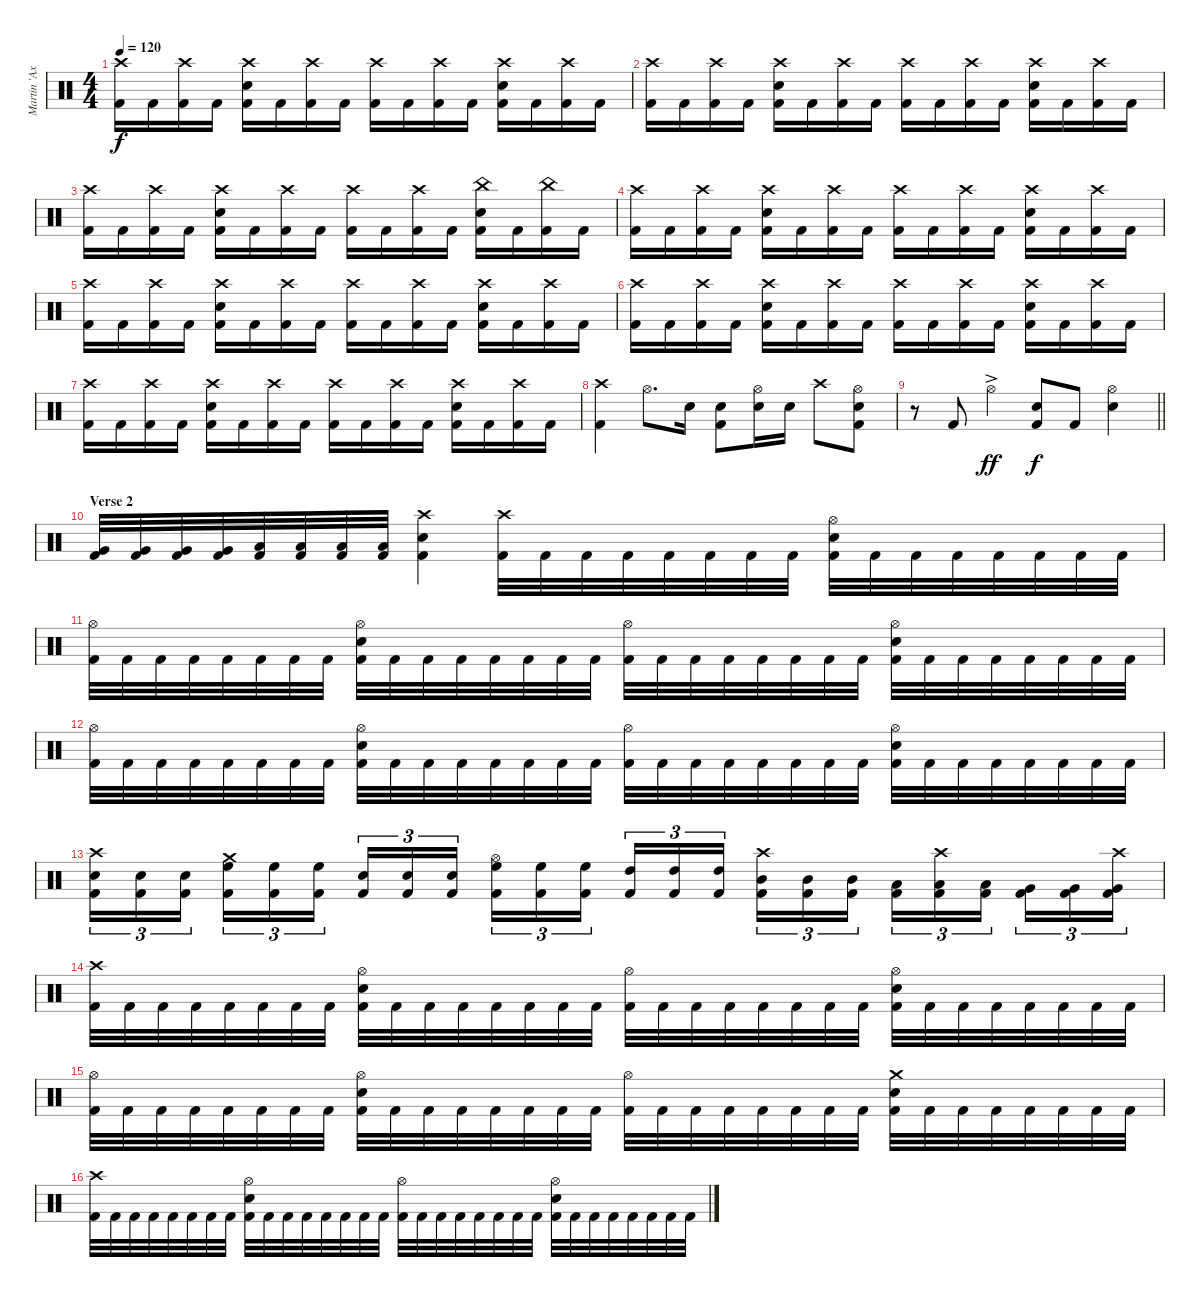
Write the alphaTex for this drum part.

\track ("Martin 'Axe' Axenrot" "Martin 'Ax") {instrument percussion}
\staff {score}
\articulation defaults
\ts (4 4)
\tempo 120
\clef neutral
\ks c
("Crash high (hit)" "Kick (hit) 2").16{dy f} "Kick (hit) 2".16 ("Crash high (hit)" "Kick (hit) 2").16 "Kick (hit) 2".16 ("Crash high (hit)" "Snare (hit) 2" "Kick (hit) 2").16 "Kick (hit) 2".16 ("Crash high (hit)" "Kick (hit) 2").16 "Kick (hit) 2".16 ("Crash high (hit)" "Kick (hit) 2").16 "Kick (hit) 2".16 ("Crash high (hit)" "Kick (hit) 2").16 "Kick (hit) 2".16 ("Crash high (hit)" "Snare (hit) 2" "Kick (hit) 2").16 "Kick (hit) 2".16 ("Crash high (hit)" "Kick (hit) 2").16 "Kick (hit) 2".16 |
("Crash high (hit)" "Kick (hit) 2").16 "Kick (hit) 2".16 ("Crash high (hit)" "Kick (hit) 2").16 "Kick (hit) 2".16 ("Crash high (hit)" "Snare (hit) 2" "Kick (hit) 2").16 "Kick (hit) 2".16 ("Crash high (hit)" "Kick (hit) 2").16 "Kick (hit) 2".16 ("Crash high (hit)" "Kick (hit) 2").16 "Kick (hit) 2".16 ("Crash high (hit)" "Kick (hit) 2").16 "Kick (hit) 2".16 ("Crash high (hit)" "Snare (hit) 2" "Kick (hit) 2").16 "Kick (hit) 2".16 ("Crash high (hit)" "Kick (hit) 2").16 "Kick (hit) 2".16 |
("Crash high (hit)" "Kick (hit) 2").16 "Kick (hit) 2".16 ("Crash high (hit)" "Kick (hit) 2").16 "Kick (hit) 2".16 ("Crash high (hit)" "Snare (hit) 2" "Kick (hit) 2").16 "Kick (hit) 2".16 ("Crash high (hit)" "Kick (hit) 2").16 "Kick (hit) 2".16 ("Crash high (hit)" "Kick (hit) 2").16 "Kick (hit) 2".16 ("Crash high (hit)" "Kick (hit) 2").16 "Kick (hit) 2".16 ("China (hit)" "Snare (hit) 2" "Kick (hit) 2").16 "Kick (hit) 2".16 ("China (hit)" "Kick (hit) 2").16 "Kick (hit) 2".16 |
("Crash high (hit)" "Kick (hit) 2").16 "Kick (hit) 2".16 ("Crash high (hit)" "Kick (hit) 2").16 "Kick (hit) 2".16 ("Crash high (hit)" "Snare (hit) 2" "Kick (hit) 2").16 "Kick (hit) 2".16 ("Crash high (hit)" "Kick (hit) 2").16 "Kick (hit) 2".16 ("Crash high (hit)" "Kick (hit) 2").16 "Kick (hit) 2".16 ("Crash high (hit)" "Kick (hit) 2").16 "Kick (hit) 2".16 ("Crash high (hit)" "Snare (hit) 2" "Kick (hit) 2").16 "Kick (hit) 2".16 ("Crash high (hit)" "Kick (hit) 2").16 "Kick (hit) 2".16 |
("Crash high (hit)" "Kick (hit) 2").16 "Kick (hit) 2".16 ("Crash high (hit)" "Kick (hit) 2").16 "Kick (hit) 2".16 ("Crash high (hit)" "Snare (hit) 2" "Kick (hit) 2").16 "Kick (hit) 2".16 ("Crash high (hit)" "Kick (hit) 2").16 "Kick (hit) 2".16 ("Crash high (hit)" "Kick (hit) 2").16 "Kick (hit) 2".16 ("Crash high (hit)" "Kick (hit) 2").16 "Kick (hit) 2".16 ("Crash high (hit)" "Snare (hit) 2" "Kick (hit) 2").16 "Kick (hit) 2".16 ("Crash high (hit)" "Kick (hit) 2").16 "Kick (hit) 2".16 |
("Crash high (hit)" "Kick (hit) 2").16 "Kick (hit) 2".16 ("Crash high (hit)" "Kick (hit) 2").16 "Kick (hit) 2".16 ("Crash high (hit)" "Snare (hit) 2" "Kick (hit) 2").16 "Kick (hit) 2".16 ("Crash high (hit)" "Kick (hit) 2").16 "Kick (hit) 2".16 ("Crash high (hit)" "Kick (hit) 2").16 "Kick (hit) 2".16 ("Crash high (hit)" "Kick (hit) 2").16 "Kick (hit) 2".16 ("Crash high (hit)" "Snare (hit) 2" "Kick (hit) 2").16 "Kick (hit) 2".16 ("Crash high (hit)" "Kick (hit) 2").16 "Kick (hit) 2".16 |
("Crash high (hit)" "Kick (hit) 2").16 "Kick (hit) 2".16 ("Crash high (hit)" "Kick (hit) 2").16 "Kick (hit) 2".16 ("Crash high (hit)" "Snare (hit) 2" "Kick (hit) 2").16 "Kick (hit) 2".16 ("Crash high (hit)" "Kick (hit) 2").16 "Kick (hit) 2".16 ("Crash high (hit)" "Kick (hit) 2").16 "Kick (hit) 2".16 ("Crash high (hit)" "Kick (hit) 2").16 "Kick (hit) 2".16 ("Crash high (hit)" "Snare (hit) 2" "Kick (hit) 2").16 "Kick (hit) 2".16 ("Crash high (hit)" "Kick (hit) 2").16 "Kick (hit) 2".16 |
("Crash high (hit)" "Kick (hit) 2").4 "Hi-Hat (open)".8{d} "Snare (hit) 2".16 ("Snare (hit) 2" "Kick (hit) 2").8 ("Hi-Hat (open)" "Snare (hit) 2").16 "Snare (hit) 2".16 "Crash high (hit)".8 ("Hi-Hat (open)" "Snare (hit) 2" "Kick (hit) 2").8 |
\barLineRight lightlight
r.8 "Kick (hit) 2".8 "Hi-Hat (open)"{ac}.4{dy ff} ("Snare (hit) 2" "Kick (hit) 2").8{dy f} "Kick (hit) 2".8 ("Hi-Hat (open)" "Snare (hit) 2").4 |
\section ("" "Verse 2")
("Very Low Tom (hit)" "Kick (hit) 2").32 ("Very Low Tom (hit)" "Kick (hit) 2").32 ("Very Low Tom (hit)" "Kick (hit) 2").32 ("Very Low Tom (hit)" "Kick (hit) 2").32 ("Low Floor Tom (hit)" "Kick (hit) 2").32 ("Low Floor Tom (hit)" "Kick (hit) 2").32 ("Low Floor Tom (hit)" "Kick (hit) 2").32 ("Low Floor Tom (hit)" "Kick (hit) 2").32 ("Crash high (hit)" "Snare (hit) 2" "Kick (hit) 2").4 ("Crash high (hit)" "Kick (hit) 2").32 "Kick (hit) 2".32 "Kick (hit) 2".32 "Kick (hit) 2".32 "Kick (hit) 2".32 "Kick (hit) 2".32 "Kick (hit) 2".32 "Kick (hit) 2".32 ("Snare (hit) 2" "Hi-Hat (open)" "Kick (hit) 2").32 "Kick (hit) 2".32 "Kick (hit) 2".32 "Kick (hit) 2".32 "Kick (hit) 2".32 "Kick (hit) 2".32 "Kick (hit) 2".32 "Kick (hit) 2".32 |
("Hi-Hat (open)" "Kick (hit) 2").32 "Kick (hit) 2".32 "Kick (hit) 2".32 "Kick (hit) 2".32 "Kick (hit) 2".32 "Kick (hit) 2".32 "Kick (hit) 2".32 "Kick (hit) 2".32 ("Snare (hit) 2" "Hi-Hat (open)" "Kick (hit) 2").32 "Kick (hit) 2".32 "Kick (hit) 2".32 "Kick (hit) 2".32 "Kick (hit) 2".32 "Kick (hit) 2".32 "Kick (hit) 2".32 "Kick (hit) 2".32 ("Hi-Hat (open)" "Kick (hit) 2").32 "Kick (hit) 2".32 "Kick (hit) 2".32 "Kick (hit) 2".32 "Kick (hit) 2".32 "Kick (hit) 2".32 "Kick (hit) 2".32 "Kick (hit) 2".32 ("Snare (hit) 2" "Hi-Hat (open)" "Kick (hit) 2").32 "Kick (hit) 2".32 "Kick (hit) 2".32 "Kick (hit) 2".32 "Kick (hit) 2".32 "Kick (hit) 2".32 "Kick (hit) 2".32 "Kick (hit) 2".32 |
("Hi-Hat (open)" "Kick (hit) 2").32 "Kick (hit) 2".32 "Kick (hit) 2".32 "Kick (hit) 2".32 "Kick (hit) 2".32 "Kick (hit) 2".32 "Kick (hit) 2".32 "Kick (hit) 2".32 ("Snare (hit) 2" "Hi-Hat (open)" "Kick (hit) 2").32 "Kick (hit) 2".32 "Kick (hit) 2".32 "Kick (hit) 2".32 "Kick (hit) 2".32 "Kick (hit) 2".32 "Kick (hit) 2".32 "Kick (hit) 2".32 ("Hi-Hat (open)" "Kick (hit) 2").32 "Kick (hit) 2".32 "Kick (hit) 2".32 "Kick (hit) 2".32 "Kick (hit) 2".32 "Kick (hit) 2".32 "Kick (hit) 2".32 "Kick (hit) 2".32 ("Snare (hit) 2" "Hi-Hat (open)" "Kick (hit) 2").32 "Kick (hit) 2".32 "Kick (hit) 2".32 "Kick (hit) 2".32 "Kick (hit) 2".32 "Kick (hit) 2".32 "Kick (hit) 2".32 "Kick (hit) 2".32 |
("Crash high (hit)" "Snare (hit) 2" "Kick (hit) 2").16{tu (3 2)} ("Snare (hit) 2" "Kick (hit) 2").16{tu (3 2)} ("Snare (hit) 2" "Kick (hit) 2").16{tu (3 2) beam splitsecondary} ("Crash medium (hit)" "High Floor Tom (hit)" "Kick (hit) 2").16{tu (3 2)} ("High Floor Tom (hit)" "Kick (hit) 2").16{tu (3 2)} ("High Floor Tom (hit)" "Kick (hit) 2").16{tu (3 2)} ("Snare (hit) 2" "Kick (hit) 2").16{tu (3 2)} ("Snare (hit) 2" "Kick (hit) 2").16{tu (3 2)} ("Snare (hit) 2" "Kick (hit) 2").16{tu (3 2) beam splitsecondary} ("Hi-Hat (open)" "High Floor Tom (hit)" "Kick (hit) 2").16{tu (3 2)} ("High Floor Tom (hit)" "Kick (hit) 2").16{tu (3 2)} ("High Floor Tom (hit)" "Kick (hit) 2").16{tu (3 2)} ("High Tom (hit)" "Kick (hit) 2").16{tu (3 2)} ("High Tom (hit)" "Kick (hit) 2").16{tu (3 2)} ("High Tom (hit)" "Kick (hit) 2").16{tu (3 2) beam splitsecondary} ("Crash high (hit)" "Mid Tom (hit)" "Kick (hit) 2").16{tu (3 2)} ("Mid Tom (hit)" "Kick (hit) 2").16{tu (3 2)} ("Mid Tom (hit)" "Kick (hit) 2").16{tu (3 2)} ("Low Tom (hit)" "Kick (hit) 2").16{tu (3 2)} ("Crash high (hit)" "Low Tom (hit)" "Kick (hit) 2").16{tu (3 2)} ("Low Tom (hit)" "Kick (hit) 2").16{tu (3 2) beam splitsecondary} ("Very Low Tom (hit)" "Kick (hit) 2").16{tu (3 2)} ("Very Low Tom (hit)" "Kick (hit) 2").16{tu (3 2)} ("Crash high (hit)" "Very Low Tom (hit)" "Kick (hit) 2").16{tu (3 2)} |
("Crash high (hit)" "Kick (hit) 2").32 "Kick (hit) 2".32 "Kick (hit) 2".32 "Kick (hit) 2".32 "Kick (hit) 2".32 "Kick (hit) 2".32 "Kick (hit) 2".32 "Kick (hit) 2".32 ("Snare (hit) 2" "Hi-Hat (open)" "Kick (hit) 2").32 "Kick (hit) 2".32 "Kick (hit) 2".32 "Kick (hit) 2".32 "Kick (hit) 2".32 "Kick (hit) 2".32 "Kick (hit) 2".32 "Kick (hit) 2".32 ("Hi-Hat (open)" "Kick (hit) 2").32 "Kick (hit) 2".32 "Kick (hit) 2".32 "Kick (hit) 2".32 "Kick (hit) 2".32 "Kick (hit) 2".32 "Kick (hit) 2".32 "Kick (hit) 2".32 ("Snare (hit) 2" "Hi-Hat (open)" "Kick (hit) 2").32 "Kick (hit) 2".32 "Kick (hit) 2".32 "Kick (hit) 2".32 "Kick (hit) 2".32 "Kick (hit) 2".32 "Kick (hit) 2".32 "Kick (hit) 2".32 |
("Hi-Hat (open)" "Kick (hit) 2").32 "Kick (hit) 2".32 "Kick (hit) 2".32 "Kick (hit) 2".32 "Kick (hit) 2".32 "Kick (hit) 2".32 "Kick (hit) 2".32 "Kick (hit) 2".32 ("Snare (hit) 2" "Hi-Hat (open)" "Kick (hit) 2").32 "Kick (hit) 2".32 "Kick (hit) 2".32 "Kick (hit) 2".32 "Kick (hit) 2".32 "Kick (hit) 2".32 "Kick (hit) 2".32 "Kick (hit) 2".32 ("Hi-Hat (open)" "Kick (hit) 2").32 "Kick (hit) 2".32 "Kick (hit) 2".32 "Kick (hit) 2".32 "Kick (hit) 2".32 "Kick (hit) 2".32 "Kick (hit) 2".32 "Kick (hit) 2".32 ("Snare (hit) 2" "Crash medium (hit)" "Kick (hit) 2").32 "Kick (hit) 2".32 "Kick (hit) 2".32 "Kick (hit) 2".32 "Kick (hit) 2".32 "Kick (hit) 2".32 "Kick (hit) 2".32 "Kick (hit) 2".32 |
("Crash high (hit)" "Kick (hit) 2").32 "Kick (hit) 2".32 "Kick (hit) 2".32 "Kick (hit) 2".32 "Kick (hit) 2".32 "Kick (hit) 2".32 "Kick (hit) 2".32 "Kick (hit) 2".32 ("Snare (hit) 2" "Hi-Hat (open)" "Kick (hit) 2").32 "Kick (hit) 2".32 "Kick (hit) 2".32 "Kick (hit) 2".32 "Kick (hit) 2".32 "Kick (hit) 2".32 "Kick (hit) 2".32 "Kick (hit) 2".32 ("Hi-Hat (open)" "Kick (hit) 2").32 "Kick (hit) 2".32 "Kick (hit) 2".32 "Kick (hit) 2".32 "Kick (hit) 2".32 "Kick (hit) 2".32 "Kick (hit) 2".32 "Kick (hit) 2".32 ("Snare (hit) 2" "Hi-Hat (open)" "Kick (hit) 2").32 "Kick (hit) 2".32 "Kick (hit) 2".32 "Kick (hit) 2".32 "Kick (hit) 2".32 "Kick (hit) 2".32 "Kick (hit) 2".32 "Kick (hit) 2".32
